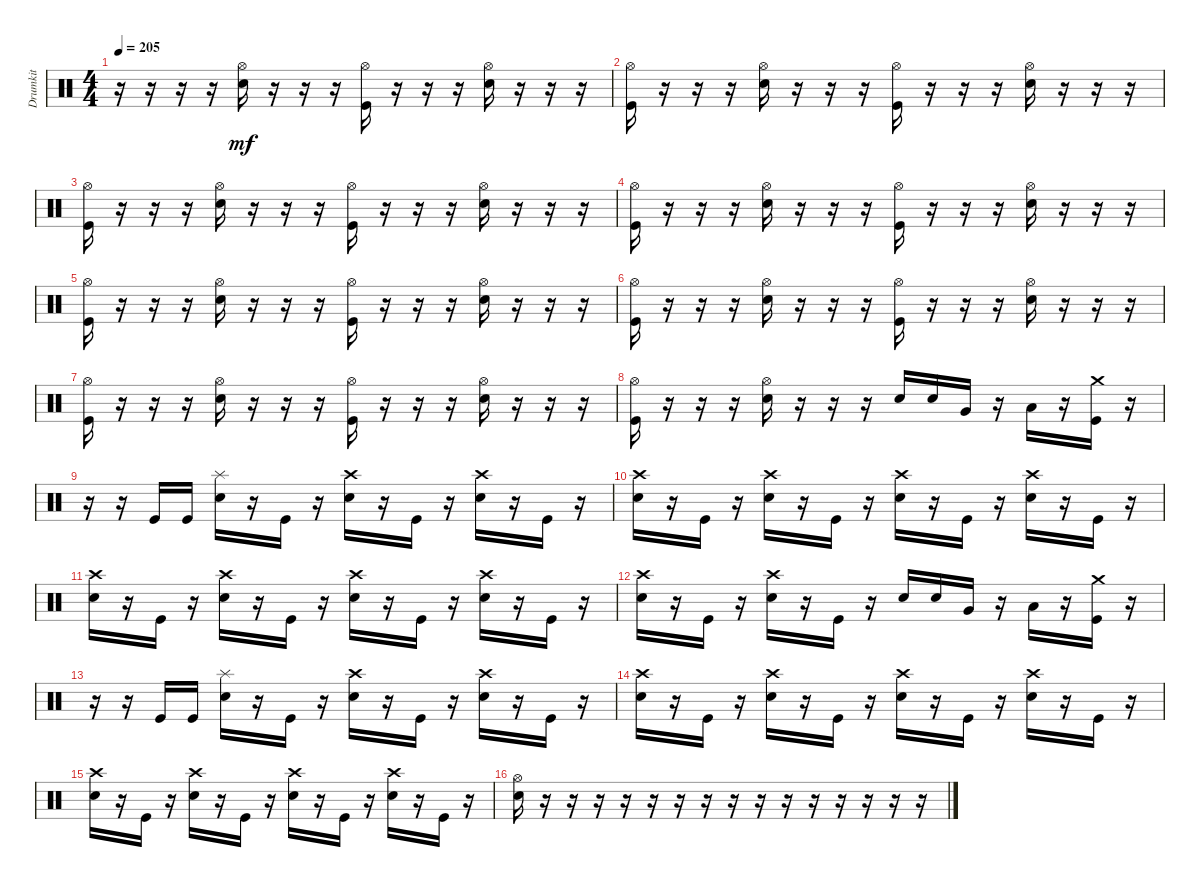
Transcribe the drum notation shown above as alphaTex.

\track ("Drumkit" "Drumkit") {instrument percussion}
\staff {score}
\articulation defaults
\ts (4 4)
\tempo 205
\clef neutral
\ks c
r.16{dy mf} r.16 r.16 r.16 ("Snare (hit) 2" "Hi-Hat (open)").16 r.16 r.16 r.16 ("Kick (hit)" "Hi-Hat (open)").16 r.16 r.16 r.16 ("Snare (hit) 2" "Hi-Hat (open)").16 r.16 r.16 r.16 |
("Hi-Hat (open)" "Kick (hit)").16 r.16 r.16 r.16 ("Snare (hit) 2" "Hi-Hat (open)").16 r.16 r.16 r.16 ("Kick (hit)" "Hi-Hat (open)").16 r.16 r.16 r.16 ("Snare (hit) 2" "Hi-Hat (open)").16 r.16 r.16 r.16 |
("Hi-Hat (open)" "Kick (hit)").16 r.16 r.16 r.16 ("Snare (hit) 2" "Hi-Hat (open)").16 r.16 r.16 r.16 ("Kick (hit)" "Hi-Hat (open)").16 r.16 r.16 r.16 ("Snare (hit) 2" "Hi-Hat (open)").16 r.16 r.16 r.16 |
("Hi-Hat (open)" "Kick (hit)").16 r.16 r.16 r.16 ("Snare (hit) 2" "Hi-Hat (open)").16 r.16 r.16 r.16 ("Kick (hit)" "Hi-Hat (open)").16 r.16 r.16 r.16 ("Snare (hit) 2" "Hi-Hat (open)").16 r.16 r.16 r.16 |
("Hi-Hat (open)" "Kick (hit)").16 r.16 r.16 r.16 ("Snare (hit) 2" "Hi-Hat (open)").16 r.16 r.16 r.16 ("Kick (hit)" "Hi-Hat (open)").16 r.16 r.16 r.16 ("Snare (hit) 2" "Hi-Hat (open)").16 r.16 r.16 r.16 |
("Hi-Hat (open)" "Kick (hit)").16 r.16 r.16 r.16 ("Snare (hit) 2" "Hi-Hat (open)").16 r.16 r.16 r.16 ("Kick (hit)" "Hi-Hat (open)").16 r.16 r.16 r.16 ("Snare (hit) 2" "Hi-Hat (open)").16 r.16 r.16 r.16 |
("Hi-Hat (open)" "Kick (hit)").16 r.16 r.16 r.16 ("Snare (hit) 2" "Hi-Hat (open)").16 r.16 r.16 r.16 ("Kick (hit)" "Hi-Hat (open)").16 r.16 r.16 r.16 ("Snare (hit) 2" "Hi-Hat (open)").16 r.16 r.16 r.16 |
("Kick (hit)" "Hi-Hat (open)").16 r.16 r.16 r.16 ("Snare (hit) 2" "Hi-Hat (open)").16 r.16 r.16 r.16 "Snare (hit) 2".16 "Snare (hit) 2".16 "Very Low Tom (hit)".16 r.16 "Low Floor Tom (hit)".16 r.16 ("Crash medium (hit)" "Kick (hit)").16 r.16 |
r.16 r.16 "Kick (hit)".16 "Kick (hit)".16 ("Snare (hit) 2" "Splash (hit)").16 r.16 "Kick (hit)".16 r.16 ("Snare (hit) 2" "Crash high (hit)").16 r.16 "Kick (hit)".16 r.16 ("Snare (hit) 2" "Crash high (hit)").16 r.16 "Kick (hit)".16 r.16 |
("Snare (hit) 2" "Crash high (hit)").16 r.16 "Kick (hit)".16 r.16 ("Snare (hit) 2" "Crash high (hit)").16 r.16 "Kick (hit)".16 r.16 ("Snare (hit) 2" "Crash high (hit)").16 r.16 "Kick (hit)".16 r.16 ("Snare (hit) 2" "Crash high (hit)").16 r.16 "Kick (hit)".16 r.16 |
("Snare (hit) 2" "Crash high (hit)").16 r.16 "Kick (hit)".16 r.16 ("Snare (hit) 2" "Crash high (hit)").16 r.16 "Kick (hit)".16 r.16 ("Snare (hit) 2" "Crash high (hit)").16 r.16 "Kick (hit)".16 r.16 ("Snare (hit) 2" "Crash high (hit)").16 r.16 "Kick (hit)".16 r.16 |
("Snare (hit) 2" "Crash high (hit)").16 r.16 "Kick (hit)".16 r.16 ("Snare (hit) 2" "Crash high (hit)").16 r.16 "Kick (hit)".16 r.16 "Snare (hit) 2".16 "Snare (hit) 2".16 "Very Low Tom (hit)".16 r.16 "Low Floor Tom (hit)".16 r.16 ("Crash medium (hit)" "Kick (hit)").16 r.16 |
r.16 r.16 "Kick (hit)".16 "Kick (hit)".16 ("Snare (hit) 2" "Splash (hit)").16 r.16 "Kick (hit)".16 r.16 ("Snare (hit) 2" "Crash high (hit)").16 r.16 "Kick (hit)".16 r.16 ("Snare (hit) 2" "Crash high (hit)").16 r.16 "Kick (hit)".16 r.16 |
("Snare (hit) 2" "Crash high (hit)").16 r.16 "Kick (hit)".16 r.16 ("Snare (hit) 2" "Crash high (hit)").16 r.16 "Kick (hit)".16 r.16 ("Snare (hit) 2" "Crash high (hit)").16 r.16 "Kick (hit)".16 r.16 ("Snare (hit) 2" "Crash high (hit)").16 r.16 "Kick (hit)".16 r.16 |
("Snare (hit) 2" "Crash high (hit)").16 r.16 "Kick (hit)".16 r.16 ("Snare (hit) 2" "Crash high (hit)").16 r.16 "Kick (hit)".16 r.16 ("Snare (hit) 2" "Crash high (hit)").16 r.16 "Kick (hit)".16 r.16 ("Snare (hit) 2" "Crash high (hit)").16 r.16 "Kick (hit)".16 r.16 |
("Snare (hit) 2" "Hi-Hat (open)").16 r.16 r.16 r.16 r.16 r.16 r.16 r.16 r.16 r.16 r.16 r.16 r.16 r.16 r.16 r.16
